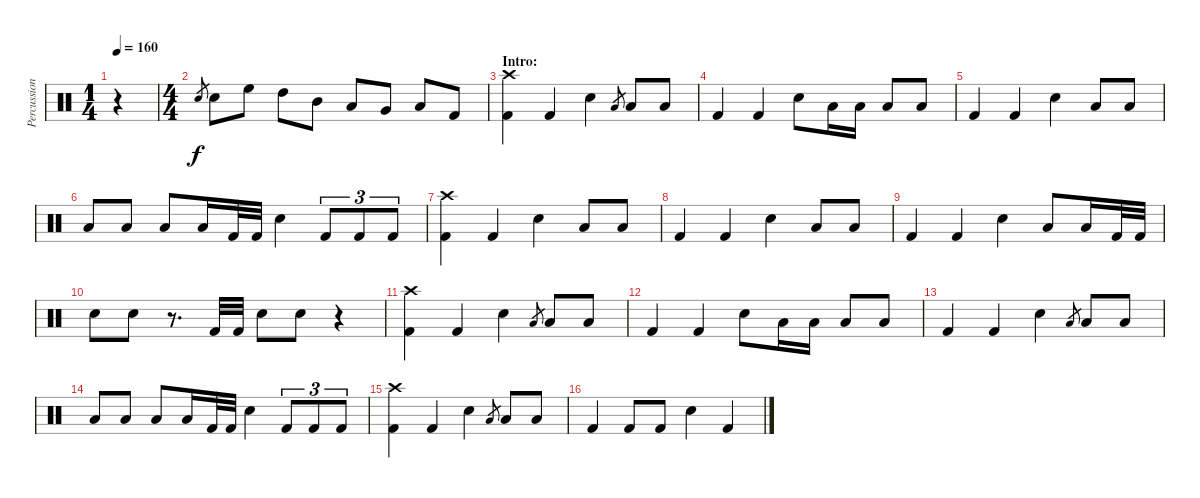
\track ("Percussion" "Percussion") {instrument percussion}
\staff {score}
\articulation defaults
\ts (1 4)
\tempo 160
\clef neutral
\ks c
r.4{dy f} |
\ts (4 4)
"Electric Snare (hit)".8{gr} "Electric Snare (hit)".8 "High Floor Tom (hit)".8 "High Tom (hit)".8 "Mid Tom (hit)".8 "Low Tom (hit)".8 "Very Low Tom (hit)".8 "Low Floor Tom (hit)".8 "Kick (hit) 2".8 |
\section ("" "Intro:")
("Crash high (hit)" "Kick (hit) 2").4 "Kick (hit) 2".4 "Electric Snare (hit)".4 "Low Floor Tom (hit)".8{gr} "Low Floor Tom (hit)".8 "Low Floor Tom (hit)".8 |
"Kick (hit) 2".4 "Kick (hit) 2".4 "Electric Snare (hit)".8 "Low Floor Tom (hit)".16 "Low Floor Tom (hit)".16 "Low Floor Tom (hit)".8 "Low Floor Tom (hit)".8 |
"Kick (hit) 2".4 "Kick (hit) 2".4 "Electric Snare (hit)".4 "Low Floor Tom (hit)".8 "Low Floor Tom (hit)".8 |
"Low Floor Tom (hit)".8 "Low Floor Tom (hit)".8 "Low Floor Tom (hit)".8 "Low Floor Tom (hit)".16 "Kick (hit) 2".32 "Kick (hit) 2".32 "Electric Snare (hit)".4 "Kick (hit) 2".8{tu (3 2)} "Kick (hit) 2".8{tu (3 2)} "Kick (hit) 2".8{tu (3 2)} |
("Crash high (hit)" "Kick (hit) 2").4 "Kick (hit) 2".4 "Electric Snare (hit)".4 "Low Floor Tom (hit)".8 "Low Floor Tom (hit)".8 |
"Kick (hit) 2".4 "Kick (hit) 2".4 "Electric Snare (hit)".4 "Low Floor Tom (hit)".8 "Low Floor Tom (hit)".8 |
"Kick (hit) 2".4 "Kick (hit) 2".4 "Electric Snare (hit)".4 "Low Floor Tom (hit)".8 "Low Floor Tom (hit)".16 "Kick (hit) 2".32 "Kick (hit) 2".32 |
"Electric Snare (hit)".8 "Electric Snare (hit)".8 r.8{d} "Kick (hit) 2".32 "Kick (hit) 2".32 "Electric Snare (hit)".8 "Electric Snare (hit)".8 r.4 |
("Crash high (hit)" "Kick (hit) 2").4 "Kick (hit) 2".4 "Electric Snare (hit)".4 "Low Floor Tom (hit)".8{gr} "Low Floor Tom (hit)".8 "Low Floor Tom (hit)".8 |
"Kick (hit) 2".4 "Kick (hit) 2".4 "Electric Snare (hit)".8 "Low Floor Tom (hit)".16 "Low Floor Tom (hit)".16 "Low Floor Tom (hit)".8 "Low Floor Tom (hit)".8 |
"Kick (hit) 2".4 "Kick (hit) 2".4 "Electric Snare (hit)".4 "Low Floor Tom (hit)".8{gr} "Low Floor Tom (hit)".8 "Low Floor Tom (hit)".8 |
"Low Floor Tom (hit)".8 "Low Floor Tom (hit)".8 "Low Floor Tom (hit)".8 "Low Floor Tom (hit)".16 "Kick (hit) 2".32 "Kick (hit) 2".32 "Electric Snare (hit)".4 "Kick (hit) 2".8{tu (3 2)} "Kick (hit) 2".8{tu (3 2)} "Kick (hit) 2".8{tu (3 2)} |
("Crash high (hit)" "Kick (hit) 2").4 "Kick (hit) 2".4 "Electric Snare (hit)".4 "Low Floor Tom (hit)".8{gr} "Low Floor Tom (hit)".8 "Low Floor Tom (hit)".8 |
"Kick (hit) 2".4 "Kick (hit) 2".8 "Kick (hit) 2".8 "Electric Snare (hit)".4 "Kick (hit) 2".4
